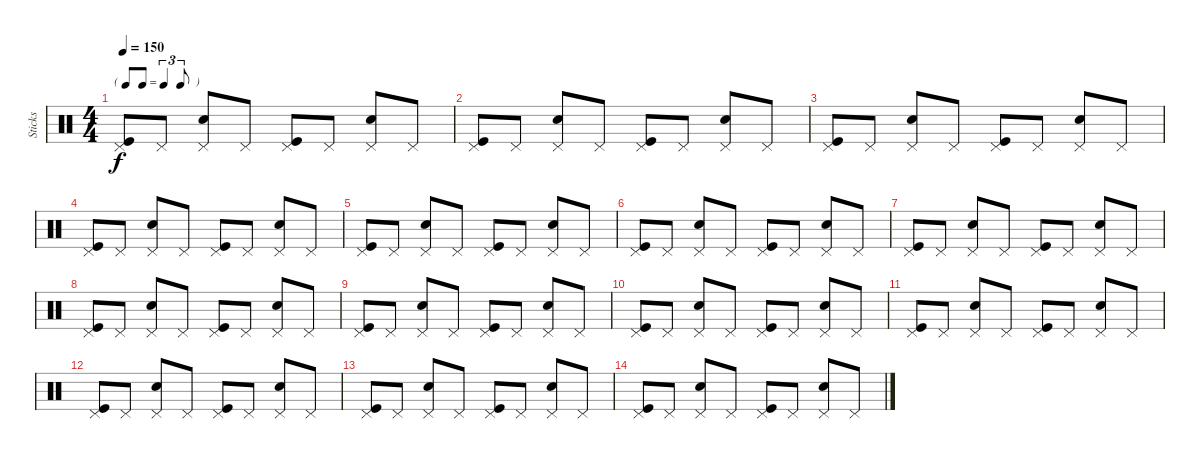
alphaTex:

\track ("Sticks" "Sticks") {instrument percussion}
\staff {score}
\articulation defaults
\ts (4 4)
\tf triplet8th
\tempo 150
\clef neutral
\ks c
("Pedal Hi-Hat (hit)" "Kick (hit)").8{dy f} "Pedal Hi-Hat (hit)".8 ("Pedal Hi-Hat (hit)" "Snare (hit) 2").8 "Pedal Hi-Hat (hit)".8 ("Pedal Hi-Hat (hit)" "Kick (hit)").8 "Pedal Hi-Hat (hit)".8 ("Pedal Hi-Hat (hit)" "Snare (hit) 2").8 "Pedal Hi-Hat (hit)".8 |
("Pedal Hi-Hat (hit)" "Kick (hit)").8 "Pedal Hi-Hat (hit)".8 ("Pedal Hi-Hat (hit)" "Snare (hit) 2").8 "Pedal Hi-Hat (hit)".8 ("Pedal Hi-Hat (hit)" "Kick (hit)").8 "Pedal Hi-Hat (hit)".8 ("Pedal Hi-Hat (hit)" "Snare (hit) 2").8 "Pedal Hi-Hat (hit)".8 |
("Pedal Hi-Hat (hit)" "Kick (hit)").8 "Pedal Hi-Hat (hit)".8 ("Pedal Hi-Hat (hit)" "Snare (hit) 2").8 "Pedal Hi-Hat (hit)".8 ("Pedal Hi-Hat (hit)" "Kick (hit)").8 "Pedal Hi-Hat (hit)".8 ("Pedal Hi-Hat (hit)" "Snare (hit) 2").8 "Pedal Hi-Hat (hit)".8 |
("Pedal Hi-Hat (hit)" "Kick (hit)").8 "Pedal Hi-Hat (hit)".8 ("Pedal Hi-Hat (hit)" "Snare (hit) 2").8 "Pedal Hi-Hat (hit)".8 ("Pedal Hi-Hat (hit)" "Kick (hit)").8 "Pedal Hi-Hat (hit)".8 ("Pedal Hi-Hat (hit)" "Snare (hit) 2").8 "Pedal Hi-Hat (hit)".8 |
("Pedal Hi-Hat (hit)" "Kick (hit)").8 "Pedal Hi-Hat (hit)".8 ("Pedal Hi-Hat (hit)" "Snare (hit) 2").8 "Pedal Hi-Hat (hit)".8 ("Pedal Hi-Hat (hit)" "Kick (hit)").8 "Pedal Hi-Hat (hit)".8 ("Pedal Hi-Hat (hit)" "Snare (hit) 2").8 "Pedal Hi-Hat (hit)".8 |
("Pedal Hi-Hat (hit)" "Kick (hit)").8 "Pedal Hi-Hat (hit)".8 ("Pedal Hi-Hat (hit)" "Snare (hit) 2").8 "Pedal Hi-Hat (hit)".8 ("Pedal Hi-Hat (hit)" "Kick (hit)").8 "Pedal Hi-Hat (hit)".8 ("Pedal Hi-Hat (hit)" "Snare (hit) 2").8 "Pedal Hi-Hat (hit)".8 |
("Pedal Hi-Hat (hit)" "Kick (hit)").8 "Pedal Hi-Hat (hit)".8 ("Pedal Hi-Hat (hit)" "Snare (hit) 2").8 "Pedal Hi-Hat (hit)".8 ("Pedal Hi-Hat (hit)" "Kick (hit)").8 "Pedal Hi-Hat (hit)".8 ("Pedal Hi-Hat (hit)" "Snare (hit) 2").8 "Pedal Hi-Hat (hit)".8 |
("Pedal Hi-Hat (hit)" "Kick (hit)").8 "Pedal Hi-Hat (hit)".8 ("Pedal Hi-Hat (hit)" "Snare (hit) 2").8 "Pedal Hi-Hat (hit)".8 ("Pedal Hi-Hat (hit)" "Kick (hit)").8 "Pedal Hi-Hat (hit)".8 ("Pedal Hi-Hat (hit)" "Snare (hit) 2").8 "Pedal Hi-Hat (hit)".8 |
("Pedal Hi-Hat (hit)" "Kick (hit)").8 "Pedal Hi-Hat (hit)".8 ("Pedal Hi-Hat (hit)" "Snare (hit) 2").8 "Pedal Hi-Hat (hit)".8 ("Pedal Hi-Hat (hit)" "Kick (hit)").8 "Pedal Hi-Hat (hit)".8 ("Pedal Hi-Hat (hit)" "Snare (hit) 2").8 "Pedal Hi-Hat (hit)".8 |
("Pedal Hi-Hat (hit)" "Kick (hit)").8 "Pedal Hi-Hat (hit)".8 ("Pedal Hi-Hat (hit)" "Snare (hit) 2").8 "Pedal Hi-Hat (hit)".8 ("Pedal Hi-Hat (hit)" "Kick (hit)").8 "Pedal Hi-Hat (hit)".8 ("Pedal Hi-Hat (hit)" "Snare (hit) 2").8 "Pedal Hi-Hat (hit)".8 |
("Pedal Hi-Hat (hit)" "Kick (hit)").8 "Pedal Hi-Hat (hit)".8 ("Pedal Hi-Hat (hit)" "Snare (hit) 2").8 "Pedal Hi-Hat (hit)".8 ("Pedal Hi-Hat (hit)" "Kick (hit)").8 "Pedal Hi-Hat (hit)".8 ("Pedal Hi-Hat (hit)" "Snare (hit) 2").8 "Pedal Hi-Hat (hit)".8 |
("Pedal Hi-Hat (hit)" "Kick (hit)").8 "Pedal Hi-Hat (hit)".8 ("Pedal Hi-Hat (hit)" "Snare (hit) 2").8 "Pedal Hi-Hat (hit)".8 ("Pedal Hi-Hat (hit)" "Kick (hit)").8 "Pedal Hi-Hat (hit)".8 ("Pedal Hi-Hat (hit)" "Snare (hit) 2").8 "Pedal Hi-Hat (hit)".8 |
("Pedal Hi-Hat (hit)" "Kick (hit)").8 "Pedal Hi-Hat (hit)".8 ("Pedal Hi-Hat (hit)" "Snare (hit) 2").8 "Pedal Hi-Hat (hit)".8 ("Pedal Hi-Hat (hit)" "Kick (hit)").8 "Pedal Hi-Hat (hit)".8 ("Pedal Hi-Hat (hit)" "Snare (hit) 2").8 "Pedal Hi-Hat (hit)".8 |
("Pedal Hi-Hat (hit)" "Kick (hit)").8 "Pedal Hi-Hat (hit)".8 ("Pedal Hi-Hat (hit)" "Snare (hit) 2").8 "Pedal Hi-Hat (hit)".8 ("Pedal Hi-Hat (hit)" "Kick (hit)").8 "Pedal Hi-Hat (hit)".8 ("Pedal Hi-Hat (hit)" "Snare (hit) 2").8 "Pedal Hi-Hat (hit)".8
